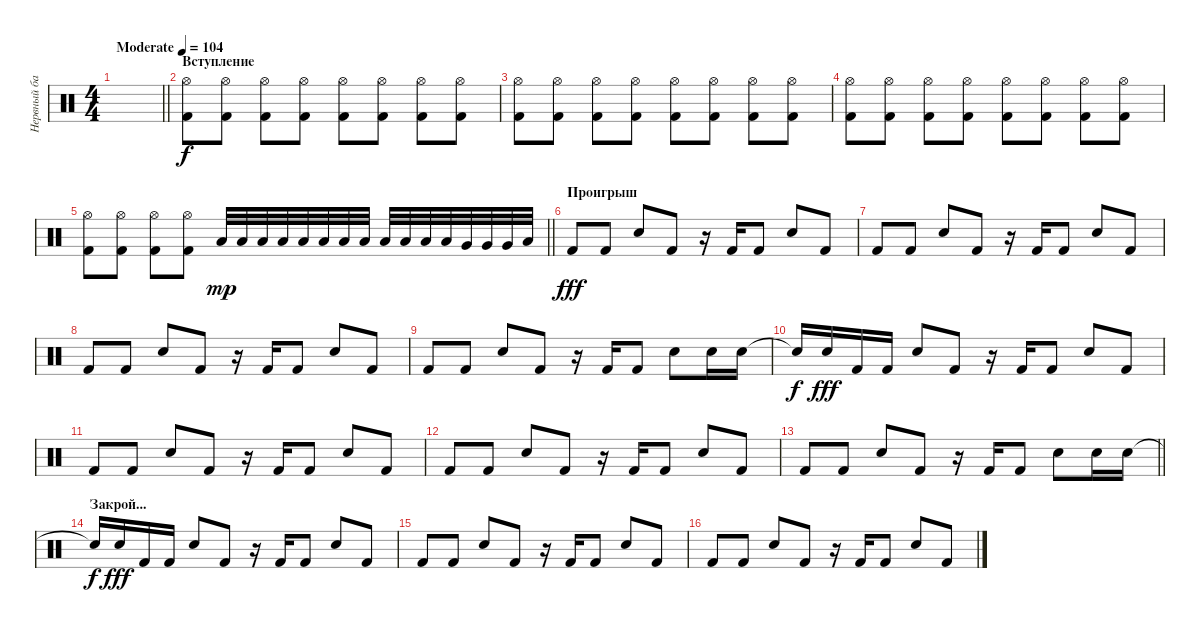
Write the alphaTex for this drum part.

\track ("Нервный барабанщик" "Нервный ба") {instrument percussion}
\staff {score}
\articulation defaults
\ts (4 4)
\tempo (104 "Moderate")
\clef neutral
\barLineRight lightlight
\ks c
|
\section ("" "Вступление")
("Hi-Hat (open)" "Kick (hit) 2").8 ("Hi-Hat (open)" "Kick (hit) 2").8 ("Hi-Hat (open)" "Kick (hit) 2").8 ("Hi-Hat (open)" "Kick (hit) 2").8 ("Hi-Hat (open)" "Kick (hit) 2").8 ("Hi-Hat (open)" "Kick (hit) 2").8 ("Hi-Hat (open)" "Kick (hit) 2").8 ("Hi-Hat (open)" "Kick (hit) 2").8 |
("Hi-Hat (open)" "Kick (hit) 2").8 ("Hi-Hat (open)" "Kick (hit) 2").8 ("Hi-Hat (open)" "Kick (hit) 2").8 ("Hi-Hat (open)" "Kick (hit) 2").8 ("Hi-Hat (open)" "Kick (hit) 2").8 ("Hi-Hat (open)" "Kick (hit) 2").8 ("Hi-Hat (open)" "Kick (hit) 2").8 ("Hi-Hat (open)" "Kick (hit) 2").8 |
("Hi-Hat (open)" "Kick (hit) 2").8 ("Hi-Hat (open)" "Kick (hit) 2").8 ("Hi-Hat (open)" "Kick (hit) 2").8 ("Hi-Hat (open)" "Kick (hit) 2").8 ("Hi-Hat (open)" "Kick (hit) 2").8 ("Hi-Hat (open)" "Kick (hit) 2").8 ("Hi-Hat (open)" "Kick (hit) 2").8 ("Hi-Hat (open)" "Kick (hit) 2").8 |
\barLineRight lightlight
("Hi-Hat (open)" "Kick (hit) 2").8 ("Hi-Hat (open)" "Kick (hit) 2").8 ("Hi-Hat (open)" "Kick (hit) 2").8 ("Hi-Hat (open)" "Kick (hit) 2").8 "Low Tom (hit)".32{dy mp} "Low Tom (hit)".32 "Low Tom (hit)".32 "Low Tom (hit)".32 "Low Floor Tom (hit)".32 "Low Floor Tom (hit)".32 "Low Floor Tom (hit)".32 "Low Floor Tom (hit)".32 "Low Tom (hit)".32 "Low Tom (hit)".32 "Low Floor Tom (hit)".32 "Low Floor Tom (hit)".32 "Very Low Tom (hit)".32 "Very Low Tom (hit)".32 "Very Low Tom (hit)".32 "Low Tom (hit)".32 |
\section ("" "Проигрыш")
"Kick (hit) 2".8{dy fff} "Kick (hit) 2".8 "Snare (hit) 2".8 "Kick (hit) 2".8 r.16 "Kick (hit) 2".16 "Kick (hit) 2".8 "Snare (hit) 2".8 "Kick (hit) 2".8 |
"Kick (hit) 2".8 "Kick (hit) 2".8 "Snare (hit) 2".8 "Kick (hit) 2".8 r.16 "Kick (hit) 2".16 "Kick (hit) 2".8 "Snare (hit) 2".8 "Kick (hit) 2".8 |
"Kick (hit) 2".8 "Kick (hit) 2".8 "Snare (hit) 2".8 "Kick (hit) 2".8 r.16 "Kick (hit) 2".16 "Kick (hit) 2".8 "Snare (hit) 2".8 "Kick (hit) 2".8 |
"Kick (hit) 2".8 "Kick (hit) 2".8 "Snare (hit) 2".8 "Kick (hit) 2".8 r.16 "Kick (hit) 2".16 "Kick (hit) 2".8 "Snare (hit) 2".8 "Snare (hit) 2".16 "Snare (hit) 2".16 |
"Snare (hit) 2"{t}.16{dy f} "Snare (hit) 2".16{dy fff} "Kick (hit) 2".16 "Kick (hit) 2".16 "Snare (hit) 2".8 "Kick (hit) 2".8 r.16 "Kick (hit) 2".16 "Kick (hit) 2".8 "Snare (hit) 2".8 "Kick (hit) 2".8 |
"Kick (hit) 2".8 "Kick (hit) 2".8 "Snare (hit) 2".8 "Kick (hit) 2".8 r.16 "Kick (hit) 2".16 "Kick (hit) 2".8 "Snare (hit) 2".8 "Kick (hit) 2".8 |
"Kick (hit) 2".8 "Kick (hit) 2".8 "Snare (hit) 2".8 "Kick (hit) 2".8 r.16 "Kick (hit) 2".16 "Kick (hit) 2".8 "Snare (hit) 2".8 "Kick (hit) 2".8 |
\barLineRight lightlight "Kick (hit) 2".8 "Kick (hit) 2".8 "Snare (hit) 2".8 "Kick (hit) 2".8
r.16 "Kick (hit) 2".16 "Kick (hit) 2".8 "Snare (hit) 2".8 "Snare (hit) 2".16 "Snare (hit) 2".16 |
\section ("" "Закрой...")
"Snare (hit) 2"{t}.16{dy f} "Snare (hit) 2".16{dy fff} "Kick (hit) 2".16 "Kick (hit) 2".16 "Snare (hit) 2".8 "Kick (hit) 2".8 r.16 "Kick (hit) 2".16 "Kick (hit) 2".8 "Snare (hit) 2".8 "Kick (hit) 2".8 |
"Kick (hit) 2".8 "Kick (hit) 2".8 "Snare (hit) 2".8 "Kick (hit) 2".8 r.16 "Kick (hit) 2".16 "Kick (hit) 2".8 "Snare (hit) 2".8 "Kick (hit) 2".8 |
"Kick (hit) 2".8 "Kick (hit) 2".8 "Snare (hit) 2".8 "Kick (hit) 2".8 r.16 "Kick (hit) 2".16 "Kick (hit) 2".8 "Snare (hit) 2".8 "Kick (hit) 2".8
